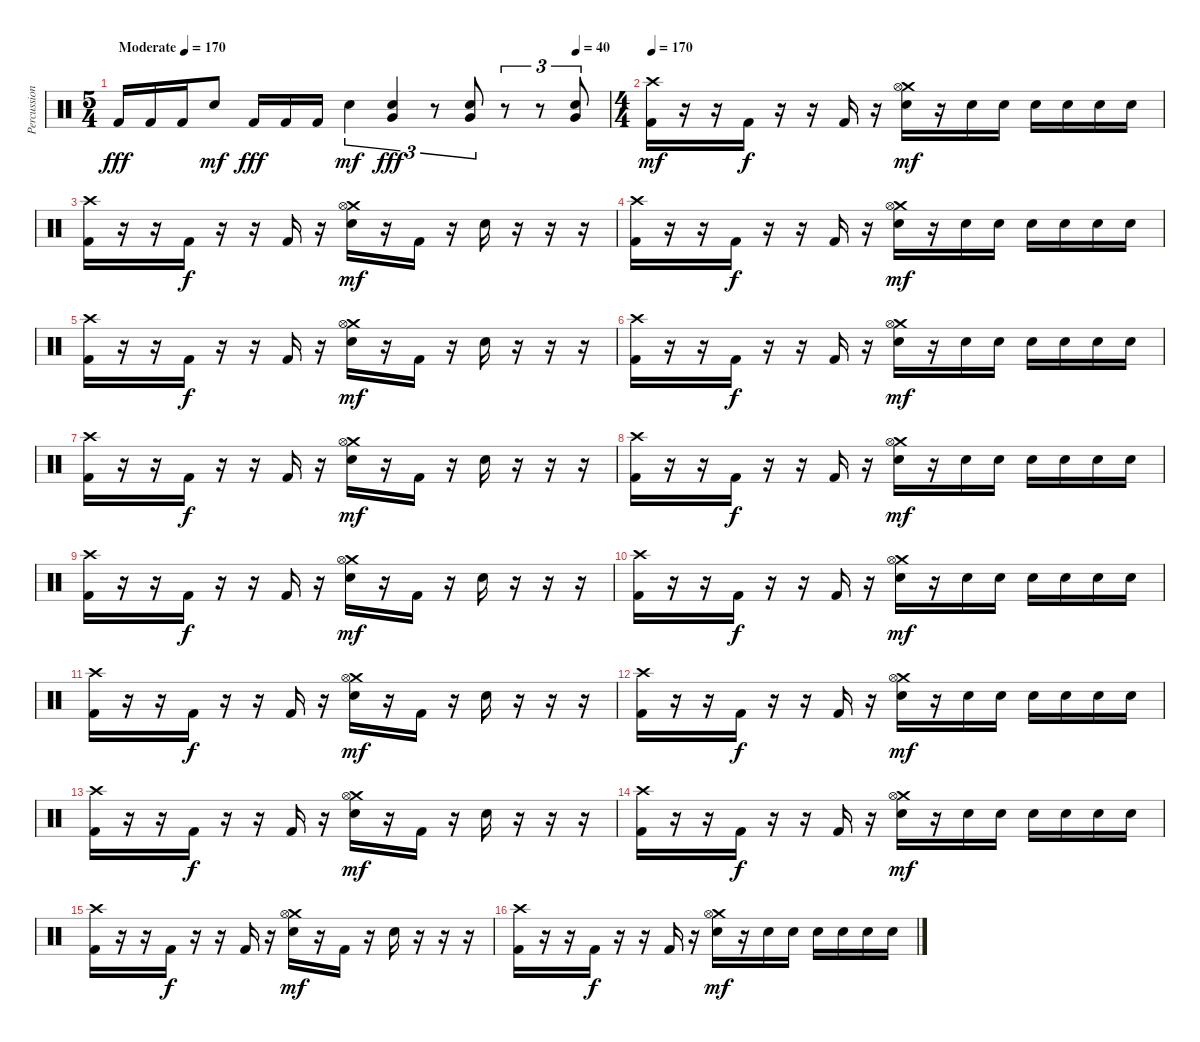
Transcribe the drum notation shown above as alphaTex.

\track ("Percussion" "Percussion") {instrument percussion}
\staff {score}
\articulation defaults
\ts (5 4)
\tempo (170 "Moderate")
\tempo (40 0.9333333333333333)
\tempo (170 "Moderate")
\clef neutral
\ks c "Kick (hit) 2".16{dy fff} "Kick (hit) 2".16 "Kick (hit) 2".16 "Electric Snare (hit)".8{dy mf} "Kick (hit) 2".16{dy fff} "Kick (hit) 2".16 "Kick (hit) 2".16 "Electric Snare (hit)".4{tu (3 2) dy mf}
("Electric Snare (hit)" "Very Low Tom (hit)").4{tu (3 2) dy fff} r.8{tu (3 2)} ("Electric Snare (hit)" "Very Low Tom (hit)").8{tu (3 2)} r.8{tu (3 2)} r.8{tu (3 2)} ("Electric Snare (hit)" "Very Low Tom (hit)").8{tu (3 2)} |
\ts (4 4)
\tempo 170
("Crash high (hit)" "Kick (hit) 2").16{dy mf} r.16 r.16 "Kick (hit) 2".16{dy f} r.16 r.16 "Kick (hit) 2".16 r.16 ("Crash medium (hit)" "Hi-Hat (open)" "Electric Snare (hit)").16{dy mf} r.16 "Electric Snare (hit)".16 "Electric Snare (hit)".16 "Electric Snare (hit)".16 "Electric Snare (hit)".16 "Electric Snare (hit)".16 "Electric Snare (hit)".16 |
("Crash high (hit)" "Kick (hit) 2").16 r.16 r.16 "Kick (hit) 2".16{dy f} r.16 r.16 "Kick (hit) 2".16 r.16 ("Crash medium (hit)" "Hi-Hat (open)" "Electric Snare (hit)").16{dy mf} r.16 "Kick (hit) 2".16 r.16 "Electric Snare (hit)".16 r.16 r.16 r.16 |
("Crash high (hit)" "Kick (hit) 2").16 r.16 r.16 "Kick (hit) 2".16{dy f} r.16 r.16 "Kick (hit) 2".16 r.16 ("Crash medium (hit)" "Hi-Hat (open)" "Electric Snare (hit)").16{dy mf} r.16 "Electric Snare (hit)".16 "Electric Snare (hit)".16 "Electric Snare (hit)".16 "Electric Snare (hit)".16 "Electric Snare (hit)".16 "Electric Snare (hit)".16 |
("Crash high (hit)" "Kick (hit) 2").16 r.16 r.16 "Kick (hit) 2".16{dy f} r.16 r.16 "Kick (hit) 2".16 r.16 ("Crash medium (hit)" "Hi-Hat (open)" "Electric Snare (hit)").16{dy mf} r.16 "Kick (hit) 2".16 r.16 "Electric Snare (hit)".16 r.16 r.16 r.16 |
("Crash high (hit)" "Kick (hit) 2").16 r.16 r.16 "Kick (hit) 2".16{dy f} r.16 r.16 "Kick (hit) 2".16 r.16 ("Crash medium (hit)" "Hi-Hat (open)" "Electric Snare (hit)").16{dy mf} r.16 "Electric Snare (hit)".16 "Electric Snare (hit)".16 "Electric Snare (hit)".16 "Electric Snare (hit)".16 "Electric Snare (hit)".16 "Electric Snare (hit)".16 |
("Crash high (hit)" "Kick (hit) 2").16 r.16 r.16 "Kick (hit) 2".16{dy f} r.16 r.16 "Kick (hit) 2".16 r.16 ("Crash medium (hit)" "Hi-Hat (open)" "Electric Snare (hit)").16{dy mf} r.16 "Kick (hit) 2".16 r.16 "Electric Snare (hit)".16 r.16 r.16 r.16 |
("Crash high (hit)" "Kick (hit) 2").16 r.16 r.16 "Kick (hit) 2".16{dy f} r.16 r.16 "Kick (hit) 2".16 r.16 ("Crash medium (hit)" "Hi-Hat (open)" "Electric Snare (hit)").16{dy mf} r.16 "Electric Snare (hit)".16 "Electric Snare (hit)".16 "Electric Snare (hit)".16 "Electric Snare (hit)".16 "Electric Snare (hit)".16 "Electric Snare (hit)".16 |
("Crash high (hit)" "Kick (hit) 2").16 r.16 r.16 "Kick (hit) 2".16{dy f} r.16 r.16 "Kick (hit) 2".16 r.16 ("Crash medium (hit)" "Hi-Hat (open)" "Electric Snare (hit)").16{dy mf} r.16 "Kick (hit) 2".16 r.16 "Electric Snare (hit)".16 r.16 r.16 r.16 |
("Crash high (hit)" "Kick (hit) 2").16 r.16 r.16 "Kick (hit) 2".16{dy f} r.16 r.16 "Kick (hit) 2".16 r.16 ("Crash medium (hit)" "Hi-Hat (open)" "Electric Snare (hit)").16{dy mf} r.16 "Electric Snare (hit)".16 "Electric Snare (hit)".16 "Electric Snare (hit)".16 "Electric Snare (hit)".16 "Electric Snare (hit)".16 "Electric Snare (hit)".16 |
("Crash high (hit)" "Kick (hit) 2").16 r.16 r.16 "Kick (hit) 2".16{dy f} r.16 r.16 "Kick (hit) 2".16 r.16 ("Crash medium (hit)" "Hi-Hat (open)" "Electric Snare (hit)").16{dy mf} r.16 "Kick (hit) 2".16 r.16 "Electric Snare (hit)".16 r.16 r.16 r.16 |
("Crash high (hit)" "Kick (hit) 2").16 r.16 r.16 "Kick (hit) 2".16{dy f} r.16 r.16 "Kick (hit) 2".16 r.16 ("Crash medium (hit)" "Hi-Hat (open)" "Electric Snare (hit)").16{dy mf} r.16 "Electric Snare (hit)".16 "Electric Snare (hit)".16 "Electric Snare (hit)".16 "Electric Snare (hit)".16 "Electric Snare (hit)".16 "Electric Snare (hit)".16 |
("Crash high (hit)" "Kick (hit) 2").16 r.16 r.16 "Kick (hit) 2".16{dy f} r.16 r.16 "Kick (hit) 2".16 r.16 ("Crash medium (hit)" "Hi-Hat (open)" "Electric Snare (hit)").16{dy mf} r.16 "Kick (hit) 2".16 r.16 "Electric Snare (hit)".16 r.16 r.16 r.16 |
("Crash high (hit)" "Kick (hit) 2").16 r.16 r.16 "Kick (hit) 2".16{dy f} r.16 r.16 "Kick (hit) 2".16 r.16 ("Crash medium (hit)" "Hi-Hat (open)" "Electric Snare (hit)").16{dy mf} r.16 "Electric Snare (hit)".16 "Electric Snare (hit)".16 "Electric Snare (hit)".16 "Electric Snare (hit)".16 "Electric Snare (hit)".16 "Electric Snare (hit)".16 |
("Crash high (hit)" "Kick (hit) 2").16 r.16 r.16 "Kick (hit) 2".16{dy f} r.16 r.16 "Kick (hit) 2".16 r.16 ("Crash medium (hit)" "Hi-Hat (open)" "Electric Snare (hit)").16{dy mf} r.16 "Kick (hit) 2".16 r.16 "Electric Snare (hit)".16 r.16 r.16 r.16 |
("Crash high (hit)" "Kick (hit) 2").16 r.16 r.16 "Kick (hit) 2".16{dy f} r.16 r.16 "Kick (hit) 2".16 r.16 ("Crash medium (hit)" "Hi-Hat (open)" "Electric Snare (hit)").16{dy mf} r.16 "Electric Snare (hit)".16 "Electric Snare (hit)".16 "Electric Snare (hit)".16 "Electric Snare (hit)".16 "Electric Snare (hit)".16 "Electric Snare (hit)".16
